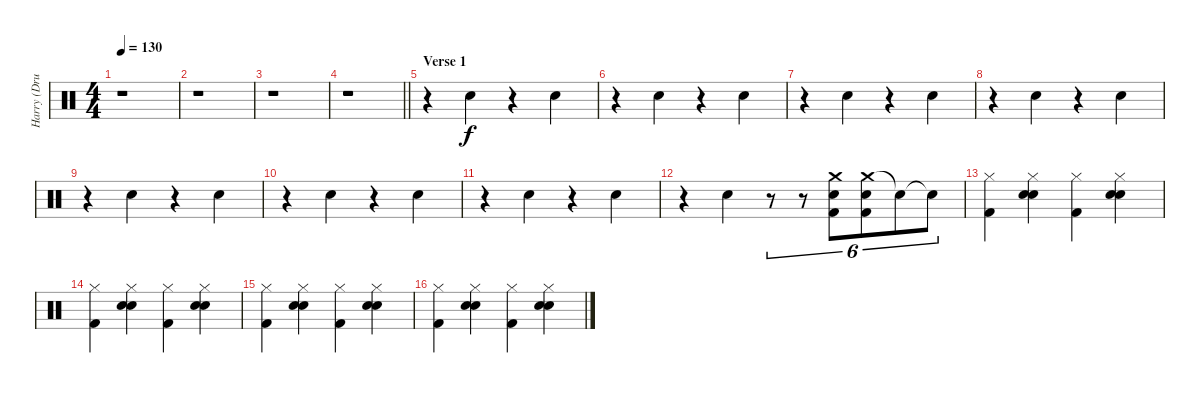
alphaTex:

\track ("Harry (Drums)" "Harry (Dru") {instrument percussion}
\staff {score}
\articulation defaults
\ts (4 4)
\tempo 130
\clef neutral
\ks c
r.1{dy f} |
r.1 |
r.1 |
\barLineRight lightlight
r.1 |
\section ("" "Verse 1")
r.4 "Hand Clap (hit)".4 r.4 "Hand Clap (hit)".4 |
r.4 "Hand Clap (hit)".4 r.4 "Hand Clap (hit)".4 |
r.4 "Hand Clap (hit)".4 r.4 "Hand Clap (hit)".4 |
r.4 "Hand Clap (hit)".4 r.4 "Hand Clap (hit)".4 |
r.4 "Hand Clap (hit)".4 r.4 "Hand Clap (hit)".4 |
r.4 "Hand Clap (hit)".4 r.4 "Hand Clap (hit)".4 |
r.4 "Hand Clap (hit)".4 r.4 "Hand Clap (hit)".4 |
r.4 "Hand Clap (hit)".4 r.8{tu (6 4)} r.8{tu (6 4)} ("Crash medium (hit)" "Snare (hit) 2" "Kick (hit) 2").8{tu (6 4)} ("Crash medium (hit)" "Snare (hit) 2" "Kick (hit) 2").8{tu (6 4)} "Snare (hit) 2"{t}.8{tu (6 4)} "Snare (hit) 2"{t}.8{tu (6 4)} |
("Hi-Hat (closed)" "Kick (hit) 2").4 ("Hi-Hat (closed)" "Snare (hit) 2" "Electric Snare (hit)").4 ("Hi-Hat (closed)" "Kick (hit) 2").4 ("Hi-Hat (closed)" "Snare (hit) 2" "Electric Snare (hit)").4 |
("Hi-Hat (closed)" "Kick (hit) 2").4 ("Hi-Hat (closed)" "Snare (hit) 2" "Electric Snare (hit)").4 ("Hi-Hat (closed)" "Kick (hit) 2").4 ("Hi-Hat (closed)" "Snare (hit) 2" "Electric Snare (hit)").4 |
("Hi-Hat (closed)" "Kick (hit) 2").4 ("Hi-Hat (closed)" "Snare (hit) 2" "Electric Snare (hit)").4 ("Hi-Hat (closed)" "Kick (hit) 2").4 ("Hi-Hat (closed)" "Snare (hit) 2" "Electric Snare (hit)").4 |
("Hi-Hat (closed)" "Kick (hit) 2").4 ("Hi-Hat (closed)" "Snare (hit) 2" "Electric Snare (hit)").4 ("Hi-Hat (closed)" "Kick (hit) 2").4 ("Hi-Hat (closed)" "Snare (hit) 2" "Electric Snare (hit)").4
